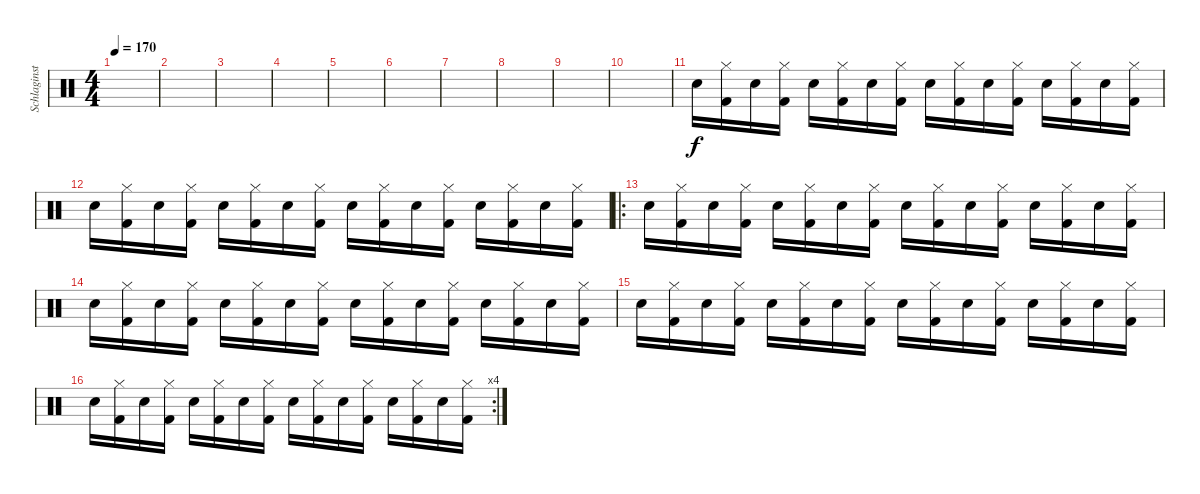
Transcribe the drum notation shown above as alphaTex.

\track ("Schlaginstrumente - Auswahl" "Schlaginst") {instrument percussion}
\staff {score}
\articulation defaults
\ts (4 4)
\tempo 170
\clef neutral
\ks c
|
|
|
|
|
|
|
|
|
|
"Snare (hit) 2".16 ("Hi-Hat (closed)" "Kick (hit) 2").16 "Snare (hit) 2".16 ("Hi-Hat (closed)" "Kick (hit) 2").16 "Snare (hit) 2".16 ("Hi-Hat (closed)" "Kick (hit) 2").16 "Snare (hit) 2".16 ("Hi-Hat (closed)" "Kick (hit) 2").16 "Snare (hit) 2".16 ("Hi-Hat (closed)" "Kick (hit) 2").16 "Snare (hit) 2".16 ("Hi-Hat (closed)" "Kick (hit) 2").16 "Snare (hit) 2".16 ("Hi-Hat (closed)" "Kick (hit) 2").16 "Snare (hit) 2".16 ("Hi-Hat (closed)" "Kick (hit) 2").16 |
"Snare (hit) 2".16 ("Hi-Hat (closed)" "Kick (hit) 2").16 "Snare (hit) 2".16 ("Hi-Hat (closed)" "Kick (hit) 2").16 "Snare (hit) 2".16 ("Hi-Hat (closed)" "Kick (hit) 2").16 "Snare (hit) 2".16 ("Hi-Hat (closed)" "Kick (hit) 2").16 "Snare (hit) 2".16 ("Hi-Hat (closed)" "Kick (hit) 2").16 "Snare (hit) 2".16 ("Hi-Hat (closed)" "Kick (hit) 2").16 "Snare (hit) 2".16 ("Hi-Hat (closed)" "Kick (hit) 2").16 "Snare (hit) 2".16 ("Hi-Hat (closed)" "Kick (hit) 2").16 |
\ro "Snare (hit) 2".16
("Hi-Hat (closed)" "Kick (hit) 2").16 "Snare (hit) 2".16 ("Hi-Hat (closed)" "Kick (hit) 2").16 "Snare (hit) 2".16 ("Hi-Hat (closed)" "Kick (hit) 2").16 "Snare (hit) 2".16 ("Hi-Hat (closed)" "Kick (hit) 2").16 "Snare (hit) 2".16 ("Hi-Hat (closed)" "Kick (hit) 2").16 "Snare (hit) 2".16 ("Hi-Hat (closed)" "Kick (hit) 2").16 "Snare (hit) 2".16 ("Hi-Hat (closed)" "Kick (hit) 2").16 "Snare (hit) 2".16 ("Hi-Hat (closed)" "Kick (hit) 2").16 |
"Snare (hit) 2".16 ("Hi-Hat (closed)" "Kick (hit) 2").16 "Snare (hit) 2".16 ("Hi-Hat (closed)" "Kick (hit) 2").16 "Snare (hit) 2".16 ("Hi-Hat (closed)" "Kick (hit) 2").16 "Snare (hit) 2".16 ("Hi-Hat (closed)" "Kick (hit) 2").16 "Snare (hit) 2".16 ("Hi-Hat (closed)" "Kick (hit) 2").16 "Snare (hit) 2".16 ("Hi-Hat (closed)" "Kick (hit) 2").16 "Snare (hit) 2".16 ("Hi-Hat (closed)" "Kick (hit) 2").16 "Snare (hit) 2".16 ("Hi-Hat (closed)" "Kick (hit) 2").16 |
"Snare (hit) 2".16 ("Hi-Hat (closed)" "Kick (hit) 2").16 "Snare (hit) 2".16 ("Hi-Hat (closed)" "Kick (hit) 2").16 "Snare (hit) 2".16 ("Hi-Hat (closed)" "Kick (hit) 2").16 "Snare (hit) 2".16 ("Hi-Hat (closed)" "Kick (hit) 2").16 "Snare (hit) 2".16 ("Hi-Hat (closed)" "Kick (hit) 2").16 "Snare (hit) 2".16 ("Hi-Hat (closed)" "Kick (hit) 2").16 "Snare (hit) 2".16 ("Hi-Hat (closed)" "Kick (hit) 2").16 "Snare (hit) 2".16 ("Hi-Hat (closed)" "Kick (hit) 2").16 |
\rc 4 "Snare (hit) 2".16
("Hi-Hat (closed)" "Kick (hit) 2").16 "Snare (hit) 2".16 ("Hi-Hat (closed)" "Kick (hit) 2").16 "Snare (hit) 2".16 ("Hi-Hat (closed)" "Kick (hit) 2").16 "Snare (hit) 2".16 ("Hi-Hat (closed)" "Kick (hit) 2").16 "Snare (hit) 2".16 ("Hi-Hat (closed)" "Kick (hit) 2").16 "Snare (hit) 2".16 ("Hi-Hat (closed)" "Kick (hit) 2").16 "Snare (hit) 2".16 ("Hi-Hat (closed)" "Kick (hit) 2").16 "Snare (hit) 2".16 ("Hi-Hat (closed)" "Kick (hit) 2").16
